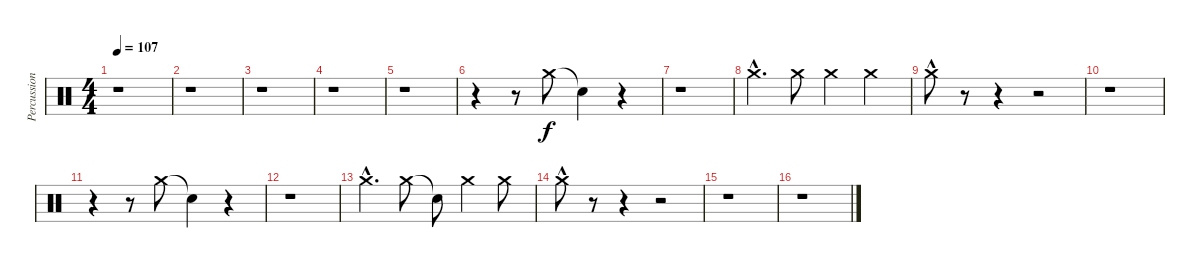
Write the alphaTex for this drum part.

\track ("Percussion" "Percussion") {instrument percussion}
\staff {score}
\articulation defaults
\ts (4 4)
\tempo 107
\clef neutral
\ks c
r.1{dy f} |
r.1 |
r.1 |
r.1 |
r.1 |
r.4 r.8 "Crash medium (hit)".8 "Snare (hit)"{t}.4 r.4 |
r.1 |
"Crash medium (hit)"{hac}.4{d} "Crash medium (hit)".8 "Crash medium (hit)".4 "Crash medium (hit)".4 |
"Crash medium (hit)"{hac}.8 r.8 r.4 r.2 |
r.1 |
r.4 r.8 "Crash medium (hit)".8 "Snare (hit)"{t}.4 r.4 |
r.1 |
"Crash medium (hit)"{hac}.4{d} "Crash medium (hit)".8 "Snare (hit)"{t}.8 "Crash medium (hit)".4 "Crash medium (hit)".8 |
"Crash medium (hit)"{hac}.8 r.8 r.4 r.2 |
r.1 |
r.1
